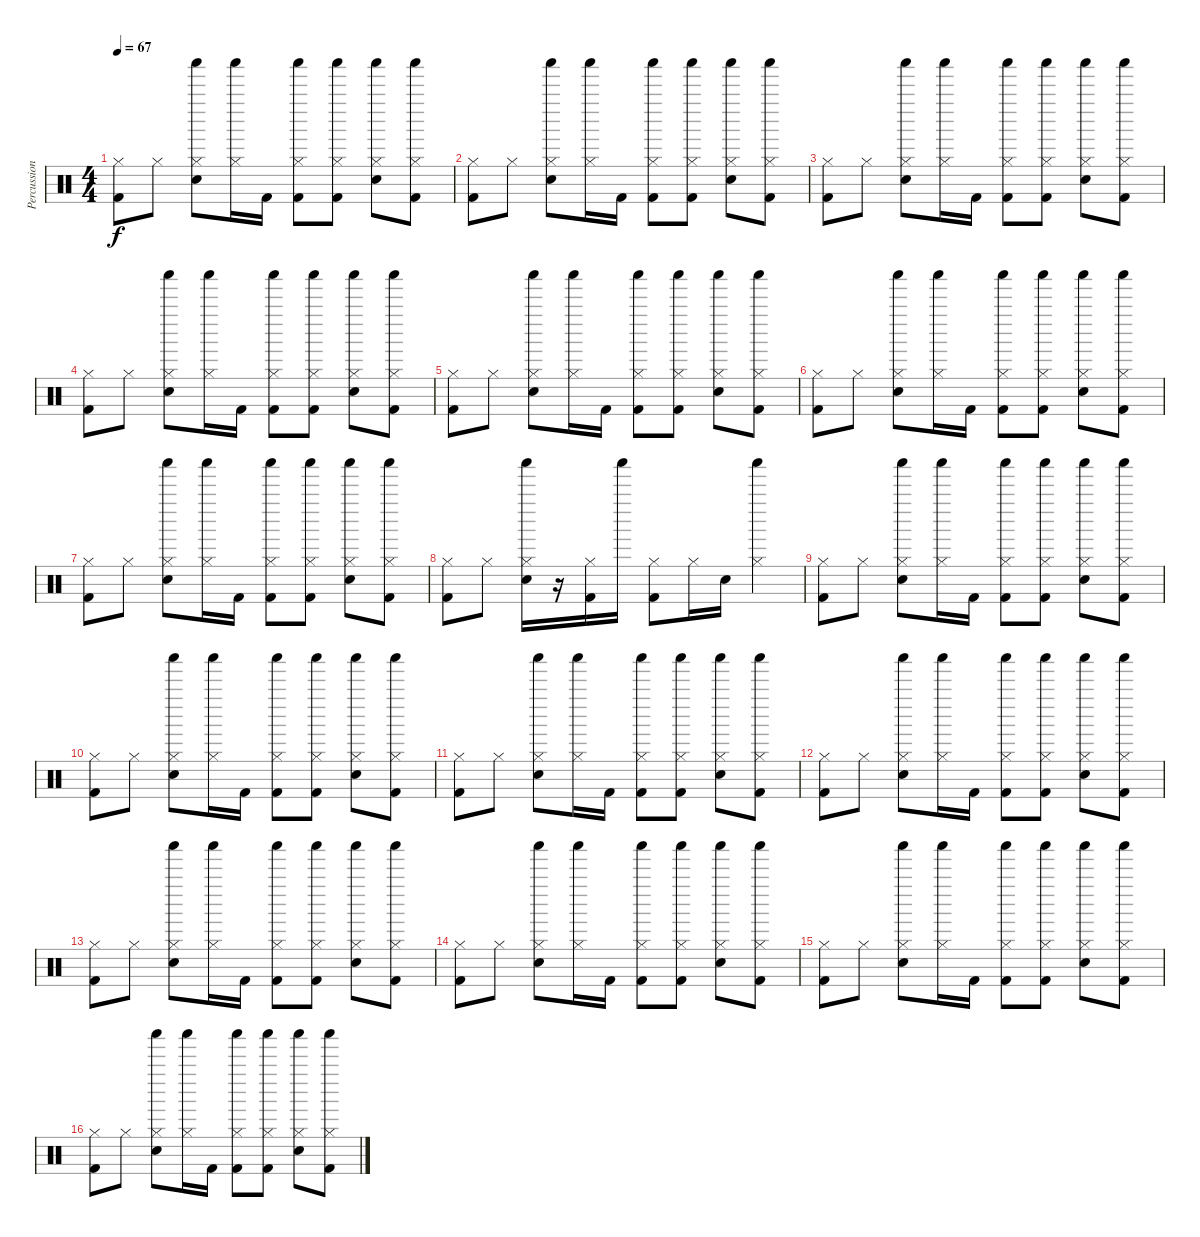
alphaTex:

\track ("Percussion" "Percussion") {instrument percussion}
\staff {score}
\articulation defaults
\ts (4 4)
\tempo 67
\clef neutral
\ks c
("Kick (hit) 2" "Hi-Hat (closed)").8{dy f} "Hi-Hat (closed)".8 ("Snare (hit) 2" "Shaker (hit)" "Hi-Hat (closed)").8 ("Shaker (hit)" "Hi-Hat (closed)").16 "Kick (hit) 2".16 ("Kick (hit) 2" "Shaker (hit)" "Hi-Hat (closed)").8 ("Kick (hit) 2" "Shaker (hit)" "Hi-Hat (closed)").8 ("Snare (hit) 2" "Shaker (hit)" "Hi-Hat (closed)").8 ("Kick (hit) 2" "Shaker (hit)" "Hi-Hat (closed)").8 |
("Kick (hit) 2" "Hi-Hat (closed)").8 "Hi-Hat (closed)".8 ("Snare (hit) 2" "Shaker (hit)" "Hi-Hat (closed)").8 ("Shaker (hit)" "Hi-Hat (closed)").16 "Kick (hit) 2".16 ("Kick (hit) 2" "Shaker (hit)" "Hi-Hat (closed)").8 ("Kick (hit) 2" "Shaker (hit)" "Hi-Hat (closed)").8 ("Snare (hit) 2" "Shaker (hit)" "Hi-Hat (closed)").8 ("Kick (hit) 2" "Shaker (hit)" "Hi-Hat (closed)").8 |
("Kick (hit) 2" "Hi-Hat (closed)").8 "Hi-Hat (closed)".8 ("Snare (hit) 2" "Shaker (hit)" "Hi-Hat (closed)").8 ("Shaker (hit)" "Hi-Hat (closed)").16 "Kick (hit) 2".16 ("Kick (hit) 2" "Shaker (hit)" "Hi-Hat (closed)").8 ("Kick (hit) 2" "Shaker (hit)" "Hi-Hat (closed)").8 ("Snare (hit) 2" "Shaker (hit)" "Hi-Hat (closed)").8 ("Kick (hit) 2" "Shaker (hit)" "Hi-Hat (closed)").8 |
("Kick (hit) 2" "Hi-Hat (closed)").8 "Hi-Hat (closed)".8 ("Snare (hit) 2" "Shaker (hit)" "Hi-Hat (closed)").8 ("Shaker (hit)" "Hi-Hat (closed)").16 "Kick (hit) 2".16 ("Kick (hit) 2" "Shaker (hit)" "Hi-Hat (closed)").8 ("Kick (hit) 2" "Shaker (hit)" "Hi-Hat (closed)").8 ("Snare (hit) 2" "Shaker (hit)" "Hi-Hat (closed)").8 ("Kick (hit) 2" "Shaker (hit)" "Hi-Hat (closed)").8 |
("Kick (hit) 2" "Hi-Hat (closed)").8 "Hi-Hat (closed)".8 ("Snare (hit) 2" "Shaker (hit)" "Hi-Hat (closed)").8 ("Shaker (hit)" "Hi-Hat (closed)").16 "Kick (hit) 2".16 ("Kick (hit) 2" "Shaker (hit)" "Hi-Hat (closed)").8 ("Kick (hit) 2" "Shaker (hit)" "Hi-Hat (closed)").8 ("Snare (hit) 2" "Shaker (hit)" "Hi-Hat (closed)").8 ("Kick (hit) 2" "Shaker (hit)" "Hi-Hat (closed)").8 |
("Kick (hit) 2" "Hi-Hat (closed)").8 "Hi-Hat (closed)".8 ("Snare (hit) 2" "Shaker (hit)" "Hi-Hat (closed)").8 ("Shaker (hit)" "Hi-Hat (closed)").16 "Kick (hit) 2".16 ("Kick (hit) 2" "Shaker (hit)" "Hi-Hat (closed)").8 ("Kick (hit) 2" "Shaker (hit)" "Hi-Hat (closed)").8 ("Snare (hit) 2" "Shaker (hit)" "Hi-Hat (closed)").8 ("Kick (hit) 2" "Shaker (hit)" "Hi-Hat (closed)").8 |
("Kick (hit) 2" "Hi-Hat (closed)").8 "Hi-Hat (closed)".8 ("Snare (hit) 2" "Shaker (hit)" "Hi-Hat (closed)").8 ("Shaker (hit)" "Hi-Hat (closed)").16 "Kick (hit) 2".16 ("Kick (hit) 2" "Shaker (hit)" "Hi-Hat (closed)").8 ("Kick (hit) 2" "Shaker (hit)" "Hi-Hat (closed)").8 ("Snare (hit) 2" "Shaker (hit)" "Hi-Hat (closed)").8 ("Kick (hit) 2" "Shaker (hit)" "Hi-Hat (closed)").8 |
("Kick (hit) 2" "Hi-Hat (closed)").8 "Hi-Hat (closed)".8 ("Snare (hit) 2" "Shaker (hit)" "Hi-Hat (closed)").16 r.16 ("Kick (hit) 2" "Hi-Hat (closed)").16 "Shaker (hit)".16 ("Kick (hit) 2" "Hi-Hat (closed)").8 "Hi-Hat (closed)".16 "Snare (hit) 2".16 ("Shaker (hit)" "Hi-Hat (closed)").4 |
("Kick (hit) 2" "Hi-Hat (closed)").8 "Hi-Hat (closed)".8 ("Snare (hit) 2" "Shaker (hit)" "Hi-Hat (closed)").8 ("Shaker (hit)" "Hi-Hat (closed)").16 "Kick (hit) 2".16 ("Kick (hit) 2" "Shaker (hit)" "Hi-Hat (closed)").8 ("Kick (hit) 2" "Shaker (hit)" "Hi-Hat (closed)").8 ("Snare (hit) 2" "Shaker (hit)" "Hi-Hat (closed)").8 ("Kick (hit) 2" "Shaker (hit)" "Hi-Hat (closed)").8 |
("Kick (hit) 2" "Hi-Hat (closed)").8 "Hi-Hat (closed)".8 ("Snare (hit) 2" "Shaker (hit)" "Hi-Hat (closed)").8 ("Shaker (hit)" "Hi-Hat (closed)").16 "Kick (hit) 2".16 ("Kick (hit) 2" "Shaker (hit)" "Hi-Hat (closed)").8 ("Kick (hit) 2" "Shaker (hit)" "Hi-Hat (closed)").8 ("Snare (hit) 2" "Shaker (hit)" "Hi-Hat (closed)").8 ("Kick (hit) 2" "Shaker (hit)" "Hi-Hat (closed)").8 |
("Kick (hit) 2" "Hi-Hat (closed)").8 "Hi-Hat (closed)".8 ("Snare (hit) 2" "Shaker (hit)" "Hi-Hat (closed)").8 ("Shaker (hit)" "Hi-Hat (closed)").16 "Kick (hit) 2".16 ("Kick (hit) 2" "Shaker (hit)" "Hi-Hat (closed)").8 ("Kick (hit) 2" "Shaker (hit)" "Hi-Hat (closed)").8 ("Snare (hit) 2" "Shaker (hit)" "Hi-Hat (closed)").8 ("Kick (hit) 2" "Shaker (hit)" "Hi-Hat (closed)").8 |
("Kick (hit) 2" "Hi-Hat (closed)").8 "Hi-Hat (closed)".8 ("Snare (hit) 2" "Shaker (hit)" "Hi-Hat (closed)").8 ("Shaker (hit)" "Hi-Hat (closed)").16 "Kick (hit) 2".16 ("Kick (hit) 2" "Shaker (hit)" "Hi-Hat (closed)").8 ("Kick (hit) 2" "Shaker (hit)" "Hi-Hat (closed)").8 ("Snare (hit) 2" "Shaker (hit)" "Hi-Hat (closed)").8 ("Kick (hit) 2" "Shaker (hit)" "Hi-Hat (closed)").8 |
("Kick (hit) 2" "Hi-Hat (closed)").8 "Hi-Hat (closed)".8 ("Snare (hit) 2" "Shaker (hit)" "Hi-Hat (closed)").8 ("Shaker (hit)" "Hi-Hat (closed)").16 "Kick (hit) 2".16 ("Kick (hit) 2" "Shaker (hit)" "Hi-Hat (closed)").8 ("Kick (hit) 2" "Shaker (hit)" "Hi-Hat (closed)").8 ("Snare (hit) 2" "Shaker (hit)" "Hi-Hat (closed)").8 ("Kick (hit) 2" "Shaker (hit)" "Hi-Hat (closed)").8 |
("Kick (hit) 2" "Hi-Hat (closed)").8 "Hi-Hat (closed)".8 ("Snare (hit) 2" "Shaker (hit)" "Hi-Hat (closed)").8 ("Shaker (hit)" "Hi-Hat (closed)").16 "Kick (hit) 2".16 ("Kick (hit) 2" "Shaker (hit)" "Hi-Hat (closed)").8 ("Kick (hit) 2" "Shaker (hit)" "Hi-Hat (closed)").8 ("Snare (hit) 2" "Shaker (hit)" "Hi-Hat (closed)").8 ("Kick (hit) 2" "Shaker (hit)" "Hi-Hat (closed)").8 |
("Kick (hit) 2" "Hi-Hat (closed)").8 "Hi-Hat (closed)".8 ("Snare (hit) 2" "Shaker (hit)" "Hi-Hat (closed)").8 ("Shaker (hit)" "Hi-Hat (closed)").16 "Kick (hit) 2".16 ("Kick (hit) 2" "Shaker (hit)" "Hi-Hat (closed)").8 ("Kick (hit) 2" "Shaker (hit)" "Hi-Hat (closed)").8 ("Snare (hit) 2" "Shaker (hit)" "Hi-Hat (closed)").8 ("Kick (hit) 2" "Shaker (hit)" "Hi-Hat (closed)").8 |
("Kick (hit) 2" "Hi-Hat (closed)").8 "Hi-Hat (closed)".8 ("Snare (hit) 2" "Shaker (hit)" "Hi-Hat (closed)").8 ("Shaker (hit)" "Hi-Hat (closed)").16 "Kick (hit) 2".16 ("Kick (hit) 2" "Shaker (hit)" "Hi-Hat (closed)").8 ("Kick (hit) 2" "Shaker (hit)" "Hi-Hat (closed)").8 ("Snare (hit) 2" "Shaker (hit)" "Hi-Hat (closed)").8 ("Kick (hit) 2" "Shaker (hit)" "Hi-Hat (closed)").8
